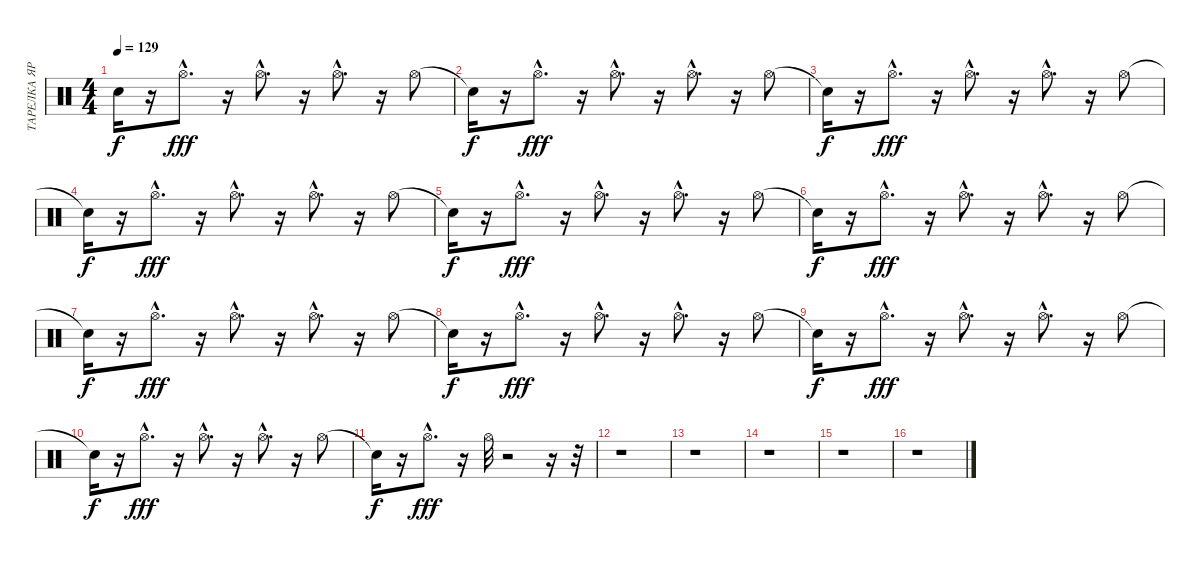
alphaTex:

\track ("ТАРЕЛКА ЯРКАЯ" "ТАРЕЛКА ЯР") {instrument percussion}
\staff {score}
\articulation defaults
\ts (4 4)
\tempo 129
\clef neutral
\ks c "Snare (hit)"{t}.16{dy f}
r.16 "Hi-Hat (open)"{hac}.8{d dy fff} r.16 "Hi-Hat (open)"{hac}.8{d} r.16 "Hi-Hat (open)"{hac}.8{d} r.16 "Hi-Hat (open)".8 |
"Snare (hit)"{t}.16{dy f} r.16 "Hi-Hat (open)"{hac}.8{d dy fff} r.16 "Hi-Hat (open)"{hac}.8{d} r.16 "Hi-Hat (open)"{hac}.8{d} r.16 "Hi-Hat (open)".8 |
"Snare (hit)"{t}.16{dy f} r.16 "Hi-Hat (open)"{hac}.8{d dy fff} r.16 "Hi-Hat (open)"{hac}.8{d} r.16 "Hi-Hat (open)"{hac}.8{d} r.16 "Hi-Hat (open)".8 |
"Snare (hit)"{t}.16{dy f} r.16 "Hi-Hat (open)"{hac}.8{d dy fff} r.16 "Hi-Hat (open)"{hac}.8{d} r.16 "Hi-Hat (open)"{hac}.8{d} r.16 "Hi-Hat (open)".8 |
"Snare (hit)"{t}.16{dy f} r.16 "Hi-Hat (open)"{hac}.8{d dy fff} r.16 "Hi-Hat (open)"{hac}.8{d} r.16 "Hi-Hat (open)"{hac}.8{d} r.16 "Hi-Hat (open)".8 |
"Snare (hit)"{t}.16{dy f} r.16 "Hi-Hat (open)"{hac}.8{d dy fff} r.16 "Hi-Hat (open)"{hac}.8{d} r.16 "Hi-Hat (open)"{hac}.8{d} r.16 "Hi-Hat (open)".8 |
"Snare (hit)"{t}.16{dy f} r.16 "Hi-Hat (open)"{hac}.8{d dy fff} r.16 "Hi-Hat (open)"{hac}.8{d} r.16 "Hi-Hat (open)"{hac}.8{d} r.16 "Hi-Hat (open)".8 |
"Snare (hit)"{t}.16{dy f} r.16 "Hi-Hat (open)"{hac}.8{d dy fff} r.16 "Hi-Hat (open)"{hac}.8{d} r.16 "Hi-Hat (open)"{hac}.8{d} r.16 "Hi-Hat (open)".8 |
"Snare (hit)"{t}.16{dy f} r.16 "Hi-Hat (open)"{hac}.8{d dy fff} r.16 "Hi-Hat (open)"{hac}.8{d} r.16 "Hi-Hat (open)"{hac}.8{d} r.16 "Hi-Hat (open)".8 |
"Snare (hit)"{t}.16{dy f} r.16 "Hi-Hat (open)"{hac}.8{d dy fff} r.16 "Hi-Hat (open)"{hac}.8{d} r.16 "Hi-Hat (open)"{hac}.8{d} r.16 "Hi-Hat (open)".8 |
"Snare (hit)"{t}.16{dy f} r.16 "Hi-Hat (open)"{hac}.8{d dy fff} r.16 "Hi-Hat (open)".32 r.2 r.16 r.32 |
r.1 |
r.1 |
r.1 |
r.1 |
r.1
